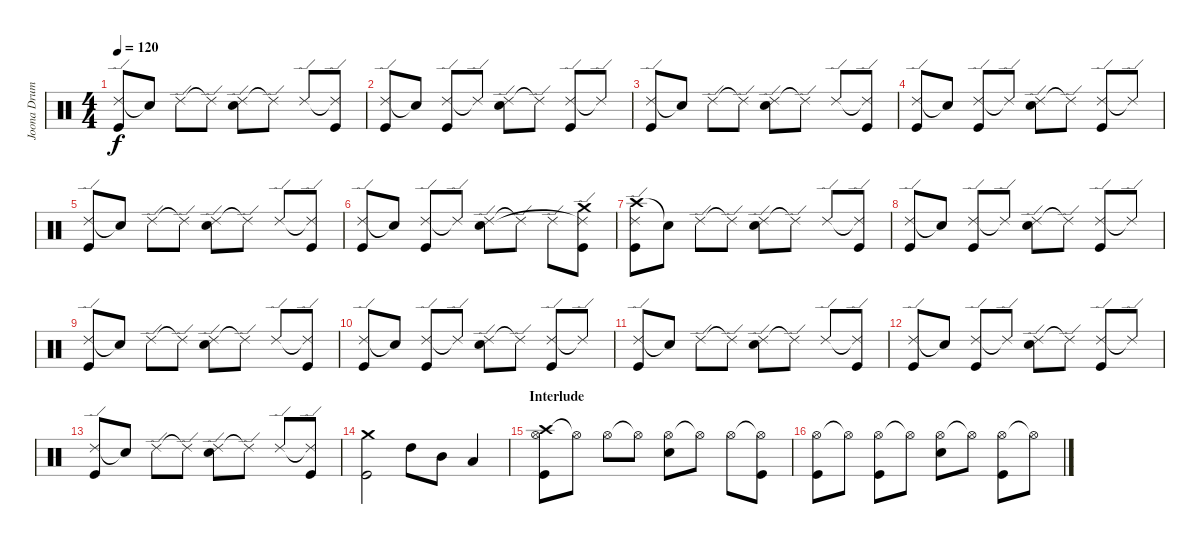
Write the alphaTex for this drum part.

\track ("Joona Drums" "Joona Drum") {instrument percussion}
\staff {score}
\articulation defaults
\ts (4 4)
\tempo 120
\clef neutral
\ks c
("Ride (edge) 2" "Kick (hit)").8{dy f} "Snare (hit)"{t}.8 "Ride (edge) 2".8 "Ride (edge) 2"{t}.8 ("Ride (edge) 2" "Snare (hit) 2").8 "Ride (edge) 2"{t}.8 "Ride (edge) 2".8 ("Ride (edge) 2"{t} "Kick (hit)").8 |
("Ride (edge) 2" "Kick (hit)").8 "Snare (hit)"{t}.8 ("Ride (edge) 2" "Kick (hit)").8 "Ride (edge) 2"{t}.8 ("Ride (edge) 2" "Snare (hit) 2").8 "Ride (edge) 2"{t}.8 ("Ride (edge) 2" "Kick (hit)").8 "Ride (edge) 2"{t}.8 |
("Ride (edge) 2" "Kick (hit)").8 "Snare (hit)"{t}.8 "Ride (edge) 2".8 "Ride (edge) 2"{t}.8 ("Ride (edge) 2" "Snare (hit) 2").8 "Ride (edge) 2"{t}.8 "Ride (edge) 2".8 ("Ride (edge) 2"{t} "Kick (hit)").8 |
("Ride (edge) 2" "Kick (hit)").8 "Snare (hit)"{t}.8 ("Ride (edge) 2" "Kick (hit)").8 "Ride (edge) 2"{t}.8 ("Ride (edge) 2" "Snare (hit) 2").8 "Ride (edge) 2"{t}.8 ("Ride (edge) 2" "Kick (hit)").8 "Ride (edge) 2"{t}.8 |
("Ride (edge) 2" "Kick (hit)").8 "Snare (hit)"{t}.8 "Ride (edge) 2".8 "Ride (edge) 2"{t}.8 ("Ride (edge) 2" "Snare (hit) 2").8 "Ride (edge) 2"{t}.8 "Ride (edge) 2".8 ("Ride (edge) 2"{t} "Kick (hit)").8 |
("Ride (edge) 2" "Kick (hit)").8 "Snare (hit)"{t}.8 ("Ride (edge) 2" "Kick (hit)").8 "Ride (edge) 2"{t}.8 ("Ride (edge) 2" "Snare (hit) 2").8 "Ride (edge) 2"{t}.8 "Ride (edge) 2".8 ("Crash medium (hit)" "Ride (edge) 2"{t} "Kick (hit)").8 |
("Crash high (hit)" "Ride (edge) 2" "Kick (hit)").8 "Snare (hit)"{t}.8 "Ride (edge) 2".8 "Ride (edge) 2"{t}.8 ("Ride (edge) 2" "Snare (hit) 2").8 "Ride (edge) 2"{t}.8 "Ride (edge) 2".8 ("Ride (edge) 2"{t} "Kick (hit)").8 |
("Ride (edge) 2" "Kick (hit)").8 "Snare (hit)"{t}.8 ("Ride (edge) 2" "Kick (hit)").8 "Ride (edge) 2"{t}.8 ("Ride (edge) 2" "Snare (hit) 2").8 "Ride (edge) 2"{t}.8 ("Ride (edge) 2" "Kick (hit)").8 "Ride (edge) 2"{t}.8 |
("Ride (edge) 2" "Kick (hit)").8 "Snare (hit)"{t}.8 "Ride (edge) 2".8 "Ride (edge) 2"{t}.8 ("Ride (edge) 2" "Snare (hit) 2").8 "Ride (edge) 2"{t}.8 "Ride (edge) 2".8 ("Ride (edge) 2"{t} "Kick (hit)").8 |
("Ride (edge) 2" "Kick (hit)").8 "Snare (hit)"{t}.8 ("Ride (edge) 2" "Kick (hit)").8 "Ride (edge) 2"{t}.8 ("Ride (edge) 2" "Snare (hit) 2").8 "Ride (edge) 2"{t}.8 ("Ride (edge) 2" "Kick (hit)").8 "Ride (edge) 2"{t}.8 |
("Ride (edge) 2" "Kick (hit)").8 "Snare (hit)"{t}.8 "Ride (edge) 2".8 "Ride (edge) 2"{t}.8 ("Ride (edge) 2" "Snare (hit) 2").8 "Ride (edge) 2"{t}.8 "Ride (edge) 2".8 ("Ride (edge) 2"{t} "Kick (hit)").8 |
("Ride (edge) 2" "Kick (hit)").8 "Snare (hit)"{t}.8 ("Ride (edge) 2" "Kick (hit)").8 "Ride (edge) 2"{t}.8 ("Ride (edge) 2" "Snare (hit) 2").8 "Ride (edge) 2"{t}.8 ("Ride (edge) 2" "Kick (hit)").8 "Ride (edge) 2"{t}.8 |
("Ride (edge) 2" "Kick (hit)").8 "Snare (hit)"{t}.8 "Ride (edge) 2".8 "Ride (edge) 2"{t}.8 ("Ride (edge) 2" "Snare (hit) 2").8 "Ride (edge) 2"{t}.8 "Ride (edge) 2".8 ("Ride (edge) 2"{t} "Kick (hit)").8 |
("Crash medium (hit)" "Kick (hit)").2 "High Tom (hit)".8 "Mid Tom (hit)".8 "Low Tom (hit)".4 |
\section ("" "Interlude")
("Crash high (hit)" "Hi-Hat (open)" "Kick (hit)").8 "Hi-Hat (open)"{t}.8 "Hi-Hat (open)".8 "Hi-Hat (open)"{t}.8 ("Hi-Hat (open)" "Snare (hit) 2").8 "Hi-Hat (open)"{t}.8 "Hi-Hat (open)".8 ("Hi-Hat (open)"{t} "Kick (hit)").8 |
("Hi-Hat (open)" "Kick (hit)").8 "Hi-Hat (open)"{t}.8 ("Hi-Hat (open)" "Kick (hit)").8 "Hi-Hat (open)"{t}.8 ("Hi-Hat (open)" "Snare (hit) 2").8 "Hi-Hat (open)"{t}.8 ("Hi-Hat (open)" "Kick (hit)").8 "Hi-Hat (open)"{t}.8
